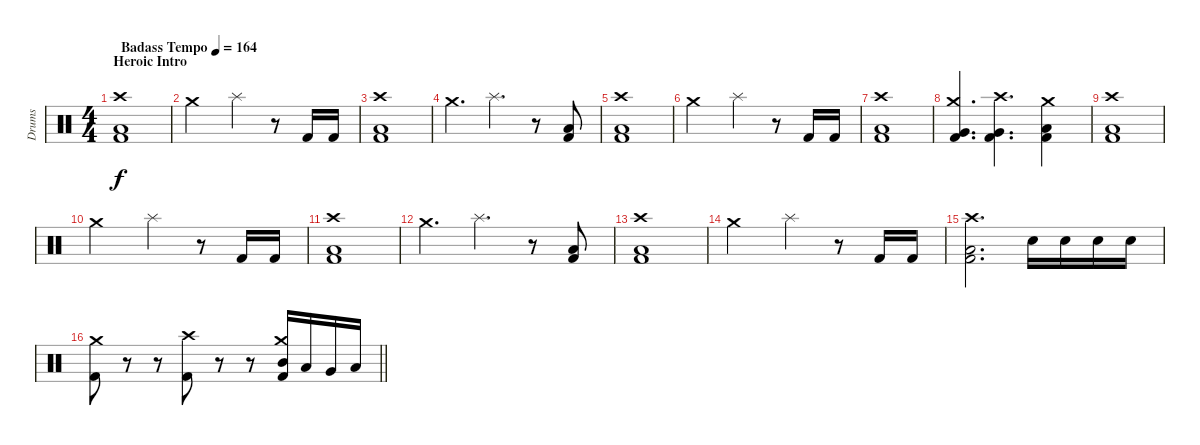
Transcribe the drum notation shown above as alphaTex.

\track ("Drums" "Drums") {instrument percussion}
\staff {score}
\articulation defaults
\ts (4 4)
\section ("" "Heroic Intro")
\tempo (164 "Badass Tempo")
\clef neutral
\ks c
("Crash high (hit)" "Low Floor Tom (hit)" "Kick (hit) 2").1{dy f} |
"Crash medium (hit)".2 "Splash (hit)".4 r.8 "Kick (hit) 2".16 "Kick (hit) 2".16 |
("Crash high (hit)" "Low Floor Tom (hit)" "Kick (hit) 2").1 |
"Crash medium (hit)".4{d} "Splash (hit)".4{d} r.8 ("Low Floor Tom (hit)" "Kick (hit) 2").8 |
("Crash high (hit)" "Low Floor Tom (hit)" "Kick (hit) 2").1 |
"Crash medium (hit)".2 "Splash (hit)".4 r.8 "Kick (hit) 2".16 "Kick (hit) 2".16 |
("Crash high (hit)" "Low Floor Tom (hit)" "Kick (hit) 2").1 |
("Crash medium (hit)" "Very Low Tom (hit)" "Kick (hit) 2").4{d} ("Crash high (hit)" "Very Low Tom (hit)" "Kick (hit) 2").4{d} ("Crash medium (hit)" "Low Floor Tom (hit)" "Kick (hit) 2").4 |
("Crash high (hit)" "Low Floor Tom (hit)" "Kick (hit) 2").1 |
"Crash medium (hit)".2 "Splash (hit)".4 r.8 "Kick (hit) 2".16 "Kick (hit) 2".16 |
("Crash high (hit)" "Low Floor Tom (hit)" "Kick (hit) 2").1 |
"Crash medium (hit)".4{d} "Splash (hit)".4{d} r.8 ("Low Floor Tom (hit)" "Kick (hit) 2").8 |
("Crash high (hit)" "Low Floor Tom (hit)" "Kick (hit) 2").1 |
"Crash medium (hit)".2 "Splash (hit)".4 r.8 "Kick (hit) 2".16 "Kick (hit) 2".16 |
("Crash high (hit)" "Low Floor Tom (hit)" "Kick (hit) 2").2{d} "Snare (hit) 2".16 "Snare (hit) 2".16 "Snare (hit) 2".16 "Snare (hit) 2".16 |
\barLineRight lightlight
("Crash medium (hit)" "Kick (hit) 2").8 r.8 r.8 ("Crash high (hit)" "Kick (hit) 2").8 r.8 r.8 ("Crash medium (hit)" "Mid Tom (hit)" "Kick (hit) 2").16 "Low Tom (hit)".16 "Very Low Tom (hit)".16 "Low Floor Tom (hit)".16
